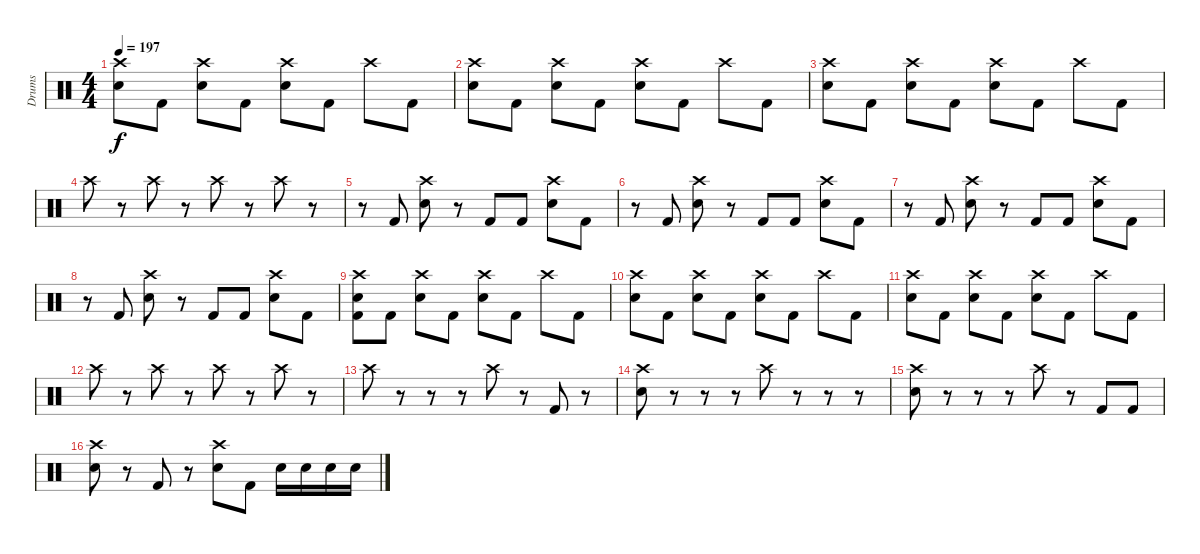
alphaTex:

\track ("Drums" "Drums") {instrument percussion}
\staff {score}
\articulation defaults
\ts (4 4)
\tempo 197
\clef neutral
\ks c
("Crash high (hit)" "Electric Snare (hit)").8{dy f} "Kick (hit) 2".8 ("Crash high (hit)" "Electric Snare (hit)").8 "Kick (hit) 2".8 ("Crash high (hit)" "Electric Snare (hit)").8 "Kick (hit) 2".8 "Crash high (hit)".8 "Kick (hit) 2".8 |
("Crash high (hit)" "Electric Snare (hit)").8 "Kick (hit) 2".8 ("Crash high (hit)" "Electric Snare (hit)").8 "Kick (hit) 2".8 ("Crash high (hit)" "Electric Snare (hit)").8 "Kick (hit) 2".8 "Crash high (hit)".8 "Kick (hit) 2".8 |
("Crash high (hit)" "Electric Snare (hit)").8 "Kick (hit) 2".8 ("Crash high (hit)" "Electric Snare (hit)").8 "Kick (hit) 2".8 ("Crash high (hit)" "Electric Snare (hit)").8 "Kick (hit) 2".8 "Crash high (hit)".8 "Kick (hit) 2".8 |
"Crash high (hit)".8 r.8 "Crash high (hit)".8 r.8 "Crash high (hit)".8 r.8 "Crash high (hit)".8 r.8 |
r.8 "Kick (hit) 2".8 ("Crash high (hit)" "Electric Snare (hit)").8 r.8 "Kick (hit) 2".8 "Kick (hit) 2".8 ("Crash high (hit)" "Electric Snare (hit)").8 "Kick (hit) 2".8 |
r.8 "Kick (hit) 2".8 ("Crash high (hit)" "Electric Snare (hit)").8 r.8 "Kick (hit) 2".8 "Kick (hit) 2".8 ("Crash high (hit)" "Electric Snare (hit)").8 "Kick (hit) 2".8 |
r.8 "Kick (hit) 2".8 ("Crash high (hit)" "Electric Snare (hit)").8 r.8 "Kick (hit) 2".8 "Kick (hit) 2".8 ("Crash high (hit)" "Electric Snare (hit)").8 "Kick (hit) 2".8 |
r.8 "Kick (hit) 2".8 ("Crash high (hit)" "Electric Snare (hit)").8 r.8 "Kick (hit) 2".8 "Kick (hit) 2".8 ("Crash high (hit)" "Electric Snare (hit)").8 "Kick (hit) 2".8 |
("Crash high (hit)" "Electric Snare (hit)" "Kick (hit) 2").8 "Kick (hit) 2".8 ("Crash high (hit)" "Electric Snare (hit)").8 "Kick (hit) 2".8 ("Crash high (hit)" "Electric Snare (hit)").8 "Kick (hit) 2".8 "Crash high (hit)".8 "Kick (hit) 2".8 |
("Crash high (hit)" "Electric Snare (hit)").8 "Kick (hit) 2".8 ("Crash high (hit)" "Electric Snare (hit)").8 "Kick (hit) 2".8 ("Crash high (hit)" "Electric Snare (hit)").8 "Kick (hit) 2".8 "Crash high (hit)".8 "Kick (hit) 2".8 |
("Crash high (hit)" "Electric Snare (hit)").8 "Kick (hit) 2".8 ("Crash high (hit)" "Electric Snare (hit)").8 "Kick (hit) 2".8 ("Crash high (hit)" "Electric Snare (hit)").8 "Kick (hit) 2".8 "Crash high (hit)".8 "Kick (hit) 2".8 |
"Crash high (hit)".8 r.8 "Crash high (hit)".8 r.8 "Crash high (hit)".8 r.8 "Crash high (hit)".8 r.8 |
"Crash high (hit)".8 r.8 r.8 r.8 "Crash high (hit)".8 r.8 "Kick (hit) 2".8 r.8 |
("Crash high (hit)" "Electric Snare (hit)").8 r.8 r.8 r.8 "Crash high (hit)".8 r.8 r.8 r.8 |
("Crash high (hit)" "Electric Snare (hit)").8 r.8 r.8 r.8 "Crash high (hit)".8 r.8 "Kick (hit) 2".8 "Kick (hit) 2".8 |
("Crash high (hit)" "Electric Snare (hit)").8 r.8 "Kick (hit) 2".8 r.8 ("Crash high (hit)" "Electric Snare (hit)").8 "Kick (hit) 2".8 "Electric Snare (hit)".16 "Electric Snare (hit)".16 "Electric Snare (hit)".16 "Electric Snare (hit)".16
